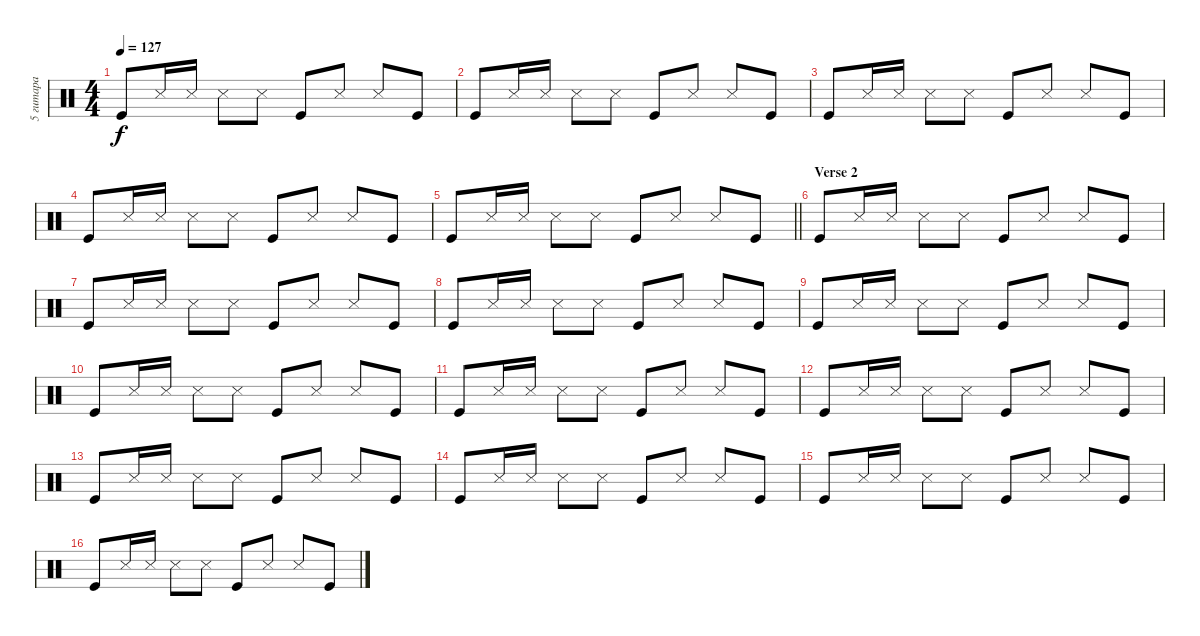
\track ("5 гитара" "5 гитара") {instrument percussion}
\staff {score}
\articulation defaults
\ts (4 4)
\tempo 127
\clef neutral
\ks c "Kick (hit)".8{dy f} "Snare (side stick) 3".16 "Snare (side stick) 3".16 "Snare (side stick) 3".8 "Snare (side stick) 3".8 "Kick (hit)".8 "Snare (side stick) 3".8 "Snare (side stick) 3".8 "Kick (hit)".8
|
"Kick (hit)".8 "Snare (side stick) 3".16 "Snare (side stick) 3".16 "Snare (side stick) 3".8 "Snare (side stick) 3".8 "Kick (hit)".8 "Snare (side stick) 3".8 "Snare (side stick) 3".8 "Kick (hit)".8 |
"Kick (hit)".8 "Snare (side stick) 3".16 "Snare (side stick) 3".16 "Snare (side stick) 3".8 "Snare (side stick) 3".8 "Kick (hit)".8 "Snare (side stick) 3".8 "Snare (side stick) 3".8 "Kick (hit)".8 |
"Kick (hit)".8 "Snare (side stick) 3".16 "Snare (side stick) 3".16 "Snare (side stick) 3".8 "Snare (side stick) 3".8 "Kick (hit)".8 "Snare (side stick) 3".8 "Snare (side stick) 3".8 "Kick (hit)".8 |
\barLineRight lightlight "Kick (hit)".8 "Snare (side stick) 3".16 "Snare (side stick) 3".16 "Snare (side stick) 3".8 "Snare (side stick) 3".8 "Kick (hit)".8 "Snare (side stick) 3".8 "Snare (side stick) 3".8 "Kick (hit)".8
|
\section ("" "Verse 2")
"Kick (hit)".8 "Snare (side stick) 3".16 "Snare (side stick) 3".16 "Snare (side stick) 3".8 "Snare (side stick) 3".8 "Kick (hit)".8 "Snare (side stick) 3".8 "Snare (side stick) 3".8 "Kick (hit)".8 |
"Kick (hit)".8 "Snare (side stick) 3".16 "Snare (side stick) 3".16 "Snare (side stick) 3".8 "Snare (side stick) 3".8 "Kick (hit)".8 "Snare (side stick) 3".8 "Snare (side stick) 3".8 "Kick (hit)".8 |
"Kick (hit)".8 "Snare (side stick) 3".16 "Snare (side stick) 3".16 "Snare (side stick) 3".8 "Snare (side stick) 3".8 "Kick (hit)".8 "Snare (side stick) 3".8 "Snare (side stick) 3".8 "Kick (hit)".8 |
"Kick (hit)".8 "Snare (side stick) 3".16 "Snare (side stick) 3".16 "Snare (side stick) 3".8 "Snare (side stick) 3".8 "Kick (hit)".8 "Snare (side stick) 3".8 "Snare (side stick) 3".8 "Kick (hit)".8 |
"Kick (hit)".8 "Snare (side stick) 3".16 "Snare (side stick) 3".16 "Snare (side stick) 3".8 "Snare (side stick) 3".8 "Kick (hit)".8 "Snare (side stick) 3".8 "Snare (side stick) 3".8 "Kick (hit)".8 |
"Kick (hit)".8 "Snare (side stick) 3".16 "Snare (side stick) 3".16 "Snare (side stick) 3".8 "Snare (side stick) 3".8 "Kick (hit)".8 "Snare (side stick) 3".8 "Snare (side stick) 3".8 "Kick (hit)".8 |
"Kick (hit)".8 "Snare (side stick) 3".16 "Snare (side stick) 3".16 "Snare (side stick) 3".8 "Snare (side stick) 3".8 "Kick (hit)".8 "Snare (side stick) 3".8 "Snare (side stick) 3".8 "Kick (hit)".8 |
"Kick (hit)".8 "Snare (side stick) 3".16 "Snare (side stick) 3".16 "Snare (side stick) 3".8 "Snare (side stick) 3".8 "Kick (hit)".8 "Snare (side stick) 3".8 "Snare (side stick) 3".8 "Kick (hit)".8 |
"Kick (hit)".8 "Snare (side stick) 3".16 "Snare (side stick) 3".16 "Snare (side stick) 3".8 "Snare (side stick) 3".8 "Kick (hit)".8 "Snare (side stick) 3".8 "Snare (side stick) 3".8 "Kick (hit)".8 |
"Kick (hit)".8 "Snare (side stick) 3".16 "Snare (side stick) 3".16 "Snare (side stick) 3".8 "Snare (side stick) 3".8 "Kick (hit)".8 "Snare (side stick) 3".8 "Snare (side stick) 3".8 "Kick (hit)".8 |
"Kick (hit)".8 "Snare (side stick) 3".16 "Snare (side stick) 3".16 "Snare (side stick) 3".8 "Snare (side stick) 3".8 "Kick (hit)".8 "Snare (side stick) 3".8 "Snare (side stick) 3".8 "Kick (hit)".8
